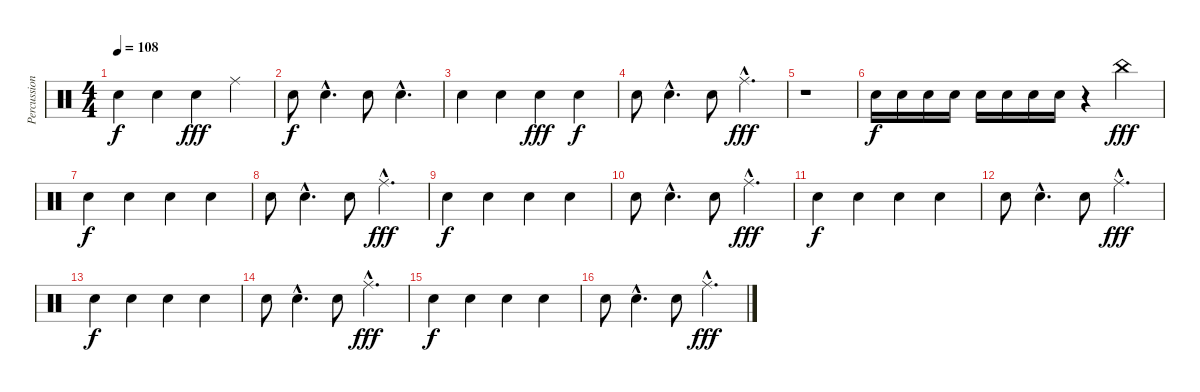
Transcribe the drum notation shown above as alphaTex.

\track ("Percussion" "Percussion") {instrument percussion}
\staff {score}
\articulation defaults
\ts (4 4)
\tempo 108
\clef neutral
\ks c "Snare (hit) 2".4{dy f} "Snare (hit) 2".4 "Snare (hit) 2".4{dy fff} "Ride (middle)".4
|
"Snare (hit) 2".8{dy f} "Snare (hit) 2"{hac}.4{d} "Snare (hit) 2".8 "Snare (hit) 2"{hac}.4{d} |
"Snare (hit) 2".4 "Snare (hit) 2".4 "Snare (hit) 2".4{dy fff} "Snare (hit) 2".4{dy f} |
"Snare (hit) 2".8 "Snare (hit) 2"{hac}.4{d} "Snare (hit) 2".8 "Ride (middle)"{hac}.4{d dy fff} |
r.1 |
"Electric Snare (hit)".16{dy f} "Electric Snare (hit)".16 "Electric Snare (hit)".16 "Electric Snare (hit)".16 "Electric Snare (hit)".16 "Electric Snare (hit)".16 "Electric Snare (hit)".16 "Electric Snare (hit)".16 r.4 "China (hit)".4{dy fff} |
"Snare (hit) 2".4{dy f} "Snare (hit) 2".4 "Snare (hit) 2".4 "Snare (hit) 2".4 |
"Snare (hit) 2".8 "Snare (hit) 2"{hac}.4{d} "Snare (hit) 2".8 "Ride (middle)"{hac}.4{d dy fff} |
"Snare (hit) 2".4{dy f} "Snare (hit) 2".4 "Snare (hit) 2".4 "Snare (hit) 2".4 |
"Snare (hit) 2".8 "Snare (hit) 2"{hac}.4{d} "Snare (hit) 2".8 "Ride (middle)"{hac}.4{d dy fff} |
"Snare (hit) 2".4{dy f} "Snare (hit) 2".4 "Snare (hit) 2".4 "Snare (hit) 2".4 |
"Snare (hit) 2".8 "Snare (hit) 2"{hac}.4{d} "Snare (hit) 2".8 "Ride (middle)"{hac}.4{d dy fff} |
"Snare (hit) 2".4{dy f} "Snare (hit) 2".4 "Snare (hit) 2".4 "Snare (hit) 2".4 |
"Snare (hit) 2".8 "Snare (hit) 2"{hac}.4{d} "Snare (hit) 2".8 "Ride (middle)"{hac}.4{d dy fff} |
"Snare (hit) 2".4{dy f} "Snare (hit) 2".4 "Snare (hit) 2".4 "Snare (hit) 2".4 |
"Snare (hit) 2".8 "Snare (hit) 2"{hac}.4{d} "Snare (hit) 2".8 "Ride (middle)"{hac}.4{d dy fff}
